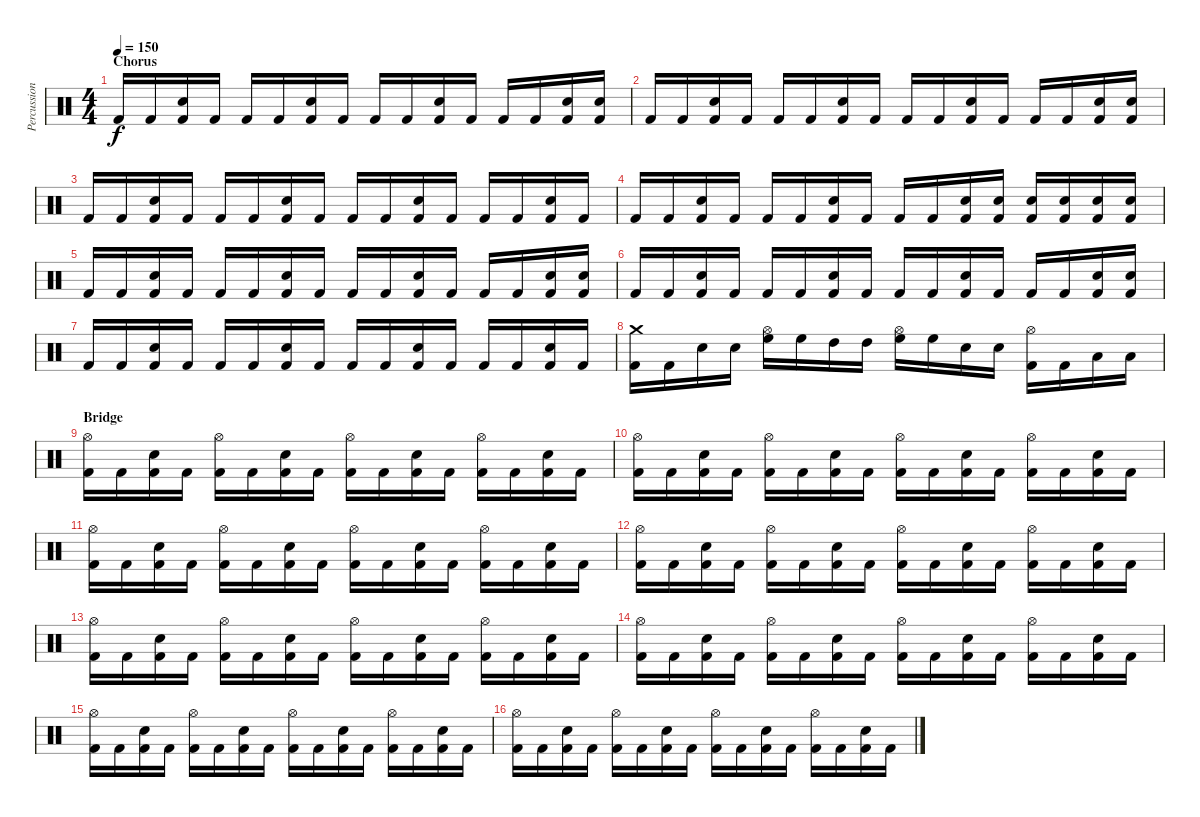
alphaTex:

\track ("Percussion" "Percussion") {instrument percussion}
\staff {score}
\articulation defaults
\ts (4 4)
\section ("" "Chorus")
\tempo 150
\clef neutral
\ks c "Kick (hit) 2".16{dy f} "Kick (hit) 2".16
("Snare (hit) 2" "Kick (hit) 2").16 "Kick (hit) 2".16 "Kick (hit) 2".16 "Kick (hit) 2".16 ("Snare (hit) 2" "Kick (hit) 2").16 "Kick (hit) 2".16 "Kick (hit) 2".16 "Kick (hit) 2".16 ("Snare (hit) 2" "Kick (hit) 2").16 "Kick (hit) 2".16 "Kick (hit) 2".16 "Kick (hit) 2".16 ("Snare (hit) 2" "Kick (hit) 2").16 ("Snare (hit) 2" "Kick (hit) 2").16 |
"Kick (hit) 2".16 "Kick (hit) 2".16 ("Snare (hit) 2" "Kick (hit) 2").16 "Kick (hit) 2".16 "Kick (hit) 2".16 "Kick (hit) 2".16 ("Snare (hit) 2" "Kick (hit) 2").16 "Kick (hit) 2".16 "Kick (hit) 2".16 "Kick (hit) 2".16 ("Snare (hit) 2" "Kick (hit) 2").16 "Kick (hit) 2".16 "Kick (hit) 2".16 "Kick (hit) 2".16 ("Snare (hit) 2" "Kick (hit) 2").16 ("Snare (hit) 2" "Kick (hit) 2").16 |
"Kick (hit) 2".16 "Kick (hit) 2".16 ("Snare (hit) 2" "Kick (hit) 2").16 "Kick (hit) 2".16 "Kick (hit) 2".16 "Kick (hit) 2".16 ("Snare (hit) 2" "Kick (hit) 2").16 "Kick (hit) 2".16 "Kick (hit) 2".16 "Kick (hit) 2".16 ("Snare (hit) 2" "Kick (hit) 2").16 "Kick (hit) 2".16 "Kick (hit) 2".16 "Kick (hit) 2".16 ("Snare (hit) 2" "Kick (hit) 2").16 "Kick (hit) 2".16 |
"Kick (hit) 2".16 "Kick (hit) 2".16 ("Snare (hit) 2" "Kick (hit) 2").16 "Kick (hit) 2".16 "Kick (hit) 2".16 "Kick (hit) 2".16 ("Snare (hit) 2" "Kick (hit) 2").16 "Kick (hit) 2".16 "Kick (hit) 2".16 "Kick (hit) 2".16 ("Snare (hit) 2" "Kick (hit) 2").16 ("Snare (hit) 2" "Kick (hit) 2").16 ("Snare (hit) 2" "Kick (hit) 2").16 ("Snare (hit) 2" "Kick (hit) 2").16 ("Snare (hit) 2" "Kick (hit) 2").16 ("Snare (hit) 2" "Kick (hit) 2").16 |
"Kick (hit) 2".16 "Kick (hit) 2".16 ("Snare (hit) 2" "Kick (hit) 2").16 "Kick (hit) 2".16 "Kick (hit) 2".16 "Kick (hit) 2".16 ("Snare (hit) 2" "Kick (hit) 2").16 "Kick (hit) 2".16 "Kick (hit) 2".16 "Kick (hit) 2".16 ("Snare (hit) 2" "Kick (hit) 2").16 "Kick (hit) 2".16 "Kick (hit) 2".16 "Kick (hit) 2".16 ("Snare (hit) 2" "Kick (hit) 2").16 ("Snare (hit) 2" "Kick (hit) 2").16 |
"Kick (hit) 2".16 "Kick (hit) 2".16 ("Snare (hit) 2" "Kick (hit) 2").16 "Kick (hit) 2".16 "Kick (hit) 2".16 "Kick (hit) 2".16 ("Snare (hit) 2" "Kick (hit) 2").16 "Kick (hit) 2".16 "Kick (hit) 2".16 "Kick (hit) 2".16 ("Snare (hit) 2" "Kick (hit) 2").16 "Kick (hit) 2".16 "Kick (hit) 2".16 "Kick (hit) 2".16 ("Snare (hit) 2" "Kick (hit) 2").16 ("Snare (hit) 2" "Kick (hit) 2").16 |
"Kick (hit) 2".16 "Kick (hit) 2".16 ("Snare (hit) 2" "Kick (hit) 2").16 "Kick (hit) 2".16 "Kick (hit) 2".16 "Kick (hit) 2".16 ("Snare (hit) 2" "Kick (hit) 2").16 "Kick (hit) 2".16 "Kick (hit) 2".16 "Kick (hit) 2".16 ("Snare (hit) 2" "Kick (hit) 2").16 "Kick (hit) 2".16 "Kick (hit) 2".16 "Kick (hit) 2".16 ("Snare (hit) 2" "Kick (hit) 2").16 "Kick (hit) 2".16 |
("Kick (hit) 2" "Crash medium (hit)").16 "Kick (hit) 2".16 "Snare (hit) 2".16 "Snare (hit) 2".16 ("High Floor Tom (hit)" "Hi-Hat (open)").16 "High Floor Tom (hit)".16 "High Tom (hit)".16 "High Tom (hit)".16 ("High Floor Tom (hit)" "Hi-Hat (open)").16 "High Floor Tom (hit)".16 "Snare (hit) 2".16 "Snare (hit) 2".16 ("Kick (hit) 2" "Hi-Hat (open)").16 "Kick (hit) 2".16 "Low Tom (hit)".16 "Low Tom (hit)".16 |
\section ("" "Bridge")
("Kick (hit) 2" "Hi-Hat (open)").16 "Kick (hit) 2".16 ("Kick (hit) 2" "Snare (hit) 2").16 "Kick (hit) 2".16 ("Kick (hit) 2" "Hi-Hat (open)").16 "Kick (hit) 2".16 ("Kick (hit) 2" "Snare (hit) 2").16 "Kick (hit) 2".16 ("Kick (hit) 2" "Hi-Hat (open)").16 "Kick (hit) 2".16 ("Kick (hit) 2" "Snare (hit) 2").16 "Kick (hit) 2".16 ("Kick (hit) 2" "Hi-Hat (open)").16 "Kick (hit) 2".16 ("Kick (hit) 2" "Snare (hit) 2").16 "Kick (hit) 2".16 |
("Kick (hit) 2" "Hi-Hat (open)").16 "Kick (hit) 2".16 ("Kick (hit) 2" "Snare (hit) 2").16 "Kick (hit) 2".16 ("Kick (hit) 2" "Hi-Hat (open)").16 "Kick (hit) 2".16 ("Kick (hit) 2" "Snare (hit) 2").16 "Kick (hit) 2".16 ("Kick (hit) 2" "Hi-Hat (open)").16 "Kick (hit) 2".16 ("Kick (hit) 2" "Snare (hit) 2").16 "Kick (hit) 2".16 ("Kick (hit) 2" "Hi-Hat (open)").16 "Kick (hit) 2".16 ("Kick (hit) 2" "Snare (hit) 2").16 "Kick (hit) 2".16 |
("Kick (hit) 2" "Hi-Hat (open)").16 "Kick (hit) 2".16 ("Kick (hit) 2" "Snare (hit) 2").16 "Kick (hit) 2".16 ("Kick (hit) 2" "Hi-Hat (open)").16 "Kick (hit) 2".16 ("Kick (hit) 2" "Snare (hit) 2").16 "Kick (hit) 2".16 ("Kick (hit) 2" "Hi-Hat (open)").16 "Kick (hit) 2".16 ("Kick (hit) 2" "Snare (hit) 2").16 "Kick (hit) 2".16 ("Kick (hit) 2" "Hi-Hat (open)").16 "Kick (hit) 2".16 ("Kick (hit) 2" "Snare (hit) 2").16 "Kick (hit) 2".16 |
("Kick (hit) 2" "Hi-Hat (open)").16 "Kick (hit) 2".16 ("Kick (hit) 2" "Snare (hit) 2").16 "Kick (hit) 2".16 ("Kick (hit) 2" "Hi-Hat (open)").16 "Kick (hit) 2".16 ("Kick (hit) 2" "Snare (hit) 2").16 "Kick (hit) 2".16 ("Kick (hit) 2" "Hi-Hat (open)").16 "Kick (hit) 2".16 ("Kick (hit) 2" "Snare (hit) 2").16 "Kick (hit) 2".16 ("Kick (hit) 2" "Hi-Hat (open)").16 "Kick (hit) 2".16 ("Kick (hit) 2" "Snare (hit) 2").16 "Kick (hit) 2".16 |
("Kick (hit) 2" "Hi-Hat (open)").16 "Kick (hit) 2".16 ("Kick (hit) 2" "Snare (hit) 2").16 "Kick (hit) 2".16 ("Kick (hit) 2" "Hi-Hat (open)").16 "Kick (hit) 2".16 ("Kick (hit) 2" "Snare (hit) 2").16 "Kick (hit) 2".16 ("Kick (hit) 2" "Hi-Hat (open)").16 "Kick (hit) 2".16 ("Kick (hit) 2" "Snare (hit) 2").16 "Kick (hit) 2".16 ("Kick (hit) 2" "Hi-Hat (open)").16 "Kick (hit) 2".16 ("Kick (hit) 2" "Snare (hit) 2").16 "Kick (hit) 2".16 |
("Kick (hit) 2" "Hi-Hat (open)").16 "Kick (hit) 2".16 ("Kick (hit) 2" "Snare (hit) 2").16 "Kick (hit) 2".16 ("Kick (hit) 2" "Hi-Hat (open)").16 "Kick (hit) 2".16 ("Kick (hit) 2" "Snare (hit) 2").16 "Kick (hit) 2".16 ("Kick (hit) 2" "Hi-Hat (open)").16 "Kick (hit) 2".16 ("Kick (hit) 2" "Snare (hit) 2").16 "Kick (hit) 2".16 ("Kick (hit) 2" "Hi-Hat (open)").16 "Kick (hit) 2".16 ("Kick (hit) 2" "Snare (hit) 2").16 "Kick (hit) 2".16 |
("Kick (hit) 2" "Hi-Hat (open)").16 "Kick (hit) 2".16 ("Kick (hit) 2" "Snare (hit) 2").16 "Kick (hit) 2".16 ("Kick (hit) 2" "Hi-Hat (open)").16 "Kick (hit) 2".16 ("Kick (hit) 2" "Snare (hit) 2").16 "Kick (hit) 2".16 ("Kick (hit) 2" "Hi-Hat (open)").16 "Kick (hit) 2".16 ("Kick (hit) 2" "Snare (hit) 2").16 "Kick (hit) 2".16 ("Kick (hit) 2" "Hi-Hat (open)").16 "Kick (hit) 2".16 ("Kick (hit) 2" "Snare (hit) 2").16 "Kick (hit) 2".16 |
("Kick (hit) 2" "Hi-Hat (open)").16 "Kick (hit) 2".16 ("Kick (hit) 2" "Snare (hit) 2").16 "Kick (hit) 2".16 ("Kick (hit) 2" "Hi-Hat (open)").16 "Kick (hit) 2".16 ("Kick (hit) 2" "Snare (hit) 2").16 "Kick (hit) 2".16 ("Kick (hit) 2" "Hi-Hat (open)").16 "Kick (hit) 2".16 ("Kick (hit) 2" "Snare (hit) 2").16 "Kick (hit) 2".16 ("Kick (hit) 2" "Hi-Hat (open)").16 "Kick (hit) 2".16 ("Kick (hit) 2" "Snare (hit) 2").16 "Kick (hit) 2".16
